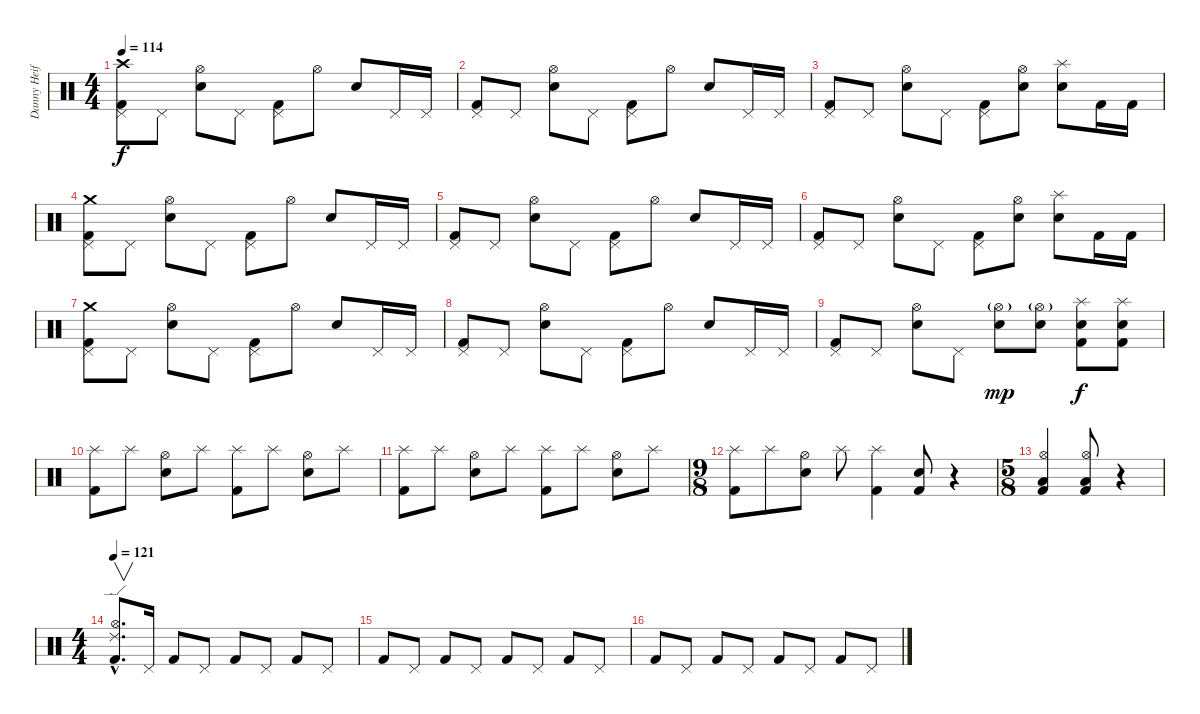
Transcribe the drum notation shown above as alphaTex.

\track ("Danny Heifetz - Drums" "Danny Heif") {instrument percussion}
\staff {score}
\articulation defaults
\ts (4 4)
\tempo 114
\clef neutral
\ks c
("Crash high (hit)" "Pedal Hi-Hat (hit)" "Kick (hit) 2").8{dy f volume 10} "Pedal Hi-Hat (hit)".8 ("Hi-Hat (open)" "Electric Snare (hit)").8 "Pedal Hi-Hat (hit)".8 ("Pedal Hi-Hat (hit)" "Kick (hit) 2").8 "Hi-Hat (open)".8 "Electric Snare (hit)".8 "Pedal Hi-Hat (hit)".16 "Pedal Hi-Hat (hit)".16 |
("Pedal Hi-Hat (hit)" "Kick (hit) 2").8 "Pedal Hi-Hat (hit)".8 ("Hi-Hat (open)" "Electric Snare (hit)").8 "Pedal Hi-Hat (hit)".8 ("Pedal Hi-Hat (hit)" "Kick (hit) 2").8 "Hi-Hat (open)".8 "Electric Snare (hit)".8 "Pedal Hi-Hat (hit)".16 "Pedal Hi-Hat (hit)".16 |
("Pedal Hi-Hat (hit)" "Kick (hit) 2").8 "Pedal Hi-Hat (hit)".8 ("Hi-Hat (open)" "Electric Snare (hit)").8 "Pedal Hi-Hat (hit)".8 ("Pedal Hi-Hat (hit)" "Kick (hit) 2").8 ("Hi-Hat (open)" "Electric Snare (hit)").8 ("Splash (hit)" "Electric Snare (hit)").8 "Kick (hit) 2".16 "Kick (hit) 2".16 |
("Crash medium (hit)" "Pedal Hi-Hat (hit)" "Kick (hit) 2").8 "Pedal Hi-Hat (hit)".8 ("Hi-Hat (open)" "Electric Snare (hit)").8 "Pedal Hi-Hat (hit)".8 ("Pedal Hi-Hat (hit)" "Kick (hit) 2").8 "Hi-Hat (open)".8 "Electric Snare (hit)".8 "Pedal Hi-Hat (hit)".16 "Pedal Hi-Hat (hit)".16 |
("Pedal Hi-Hat (hit)" "Kick (hit) 2").8 "Pedal Hi-Hat (hit)".8 ("Hi-Hat (open)" "Electric Snare (hit)").8 "Pedal Hi-Hat (hit)".8 ("Pedal Hi-Hat (hit)" "Kick (hit) 2").8 "Hi-Hat (open)".8 "Electric Snare (hit)".8 "Pedal Hi-Hat (hit)".16 "Pedal Hi-Hat (hit)".16 |
("Pedal Hi-Hat (hit)" "Kick (hit) 2").8 "Pedal Hi-Hat (hit)".8 ("Hi-Hat (open)" "Electric Snare (hit)").8 "Pedal Hi-Hat (hit)".8 ("Pedal Hi-Hat (hit)" "Kick (hit) 2").8 ("Hi-Hat (open)" "Electric Snare (hit)").8 ("Splash (hit)" "Electric Snare (hit)").8 "Kick (hit) 2".16 "Kick (hit) 2".16 |
("Crash medium (hit)" "Pedal Hi-Hat (hit)" "Kick (hit) 2").8 "Pedal Hi-Hat (hit)".8 ("Hi-Hat (open)" "Electric Snare (hit)").8 "Pedal Hi-Hat (hit)".8 ("Pedal Hi-Hat (hit)" "Kick (hit) 2").8 "Hi-Hat (open)".8 "Electric Snare (hit)".8 "Pedal Hi-Hat (hit)".16 "Pedal Hi-Hat (hit)".16 |
("Pedal Hi-Hat (hit)" "Kick (hit) 2").8 "Pedal Hi-Hat (hit)".8 ("Hi-Hat (open)" "Electric Snare (hit)").8 "Pedal Hi-Hat (hit)".8 ("Pedal Hi-Hat (hit)" "Kick (hit) 2").8 "Hi-Hat (open)".8 "Electric Snare (hit)".8 "Pedal Hi-Hat (hit)".16 "Pedal Hi-Hat (hit)".16 |
("Pedal Hi-Hat (hit)" "Kick (hit) 2").8 "Pedal Hi-Hat (hit)".8 ("Hi-Hat (open)" "Electric Snare (hit)").8 "Pedal Hi-Hat (hit)".8 ("Hi-Hat (open)"{g} "Electric Snare (hit)").8{dy mp} ("Hi-Hat (open)"{g} "Electric Snare (hit)").8 ("Splash (hit)" "Electric Snare (hit)" "Kick (hit) 2").8{dy f} ("Splash (hit)" "Electric Snare (hit)" "Kick (hit) 2").8 |
("Splash (hit)" "Kick (hit) 2").8 "Splash (hit)".8 ("Hi-Hat (open)" "Electric Snare (hit)").8 "Splash (hit)".8 ("Splash (hit)" "Kick (hit) 2").8 "Splash (hit)".8 ("Hi-Hat (open)" "Electric Snare (hit)").8 "Splash (hit)".8 |
("Splash (hit)" "Kick (hit) 2").8 "Splash (hit)".8 ("Hi-Hat (open)" "Electric Snare (hit)").8 "Splash (hit)".8 ("Splash (hit)" "Kick (hit) 2").8 "Splash (hit)".8 ("Hi-Hat (open)" "Electric Snare (hit)").8 "Splash (hit)".8 |
\ts (9 8)
("Splash (hit)" "Kick (hit) 2").8 "Splash (hit)".8 ("Hi-Hat (open)" "Electric Snare (hit)").8 "Splash (hit)".8 ("Splash (hit)" "Kick (hit) 2").4 ("Electric Snare (hit)" "Kick (hit) 2").8 r.4 |
\ts (5 8)
("Hi-Hat (open)" "Low Tom (hit)" "Kick (hit) 2").4 ("Hi-Hat (open)" "Low Tom (hit)" "Kick (hit) 2").8 r.4 |
\ts (4 4)
\tempo 121
("Ride (edge) 2"{hac} "Hi-Hat (open)"{hac} "Kick (hit) 2"{hac}).8{v d volume 12} "Pedal Hi-Hat (hit)".16 "Kick (hit) 2".8 "Pedal Hi-Hat (hit)".8 "Kick (hit) 2".8 "Pedal Hi-Hat (hit)".8 "Kick (hit) 2".8 "Pedal Hi-Hat (hit)".8 |
"Kick (hit) 2".8 "Pedal Hi-Hat (hit)".8 "Kick (hit) 2".8 "Pedal Hi-Hat (hit)".8 "Kick (hit) 2".8 "Pedal Hi-Hat (hit)".8 "Kick (hit) 2".8 "Pedal Hi-Hat (hit)".8 |
"Kick (hit) 2".8 "Pedal Hi-Hat (hit)".8 "Kick (hit) 2".8 "Pedal Hi-Hat (hit)".8 "Kick (hit) 2".8 "Pedal Hi-Hat (hit)".8 "Kick (hit) 2".8 "Pedal Hi-Hat (hit)".8
